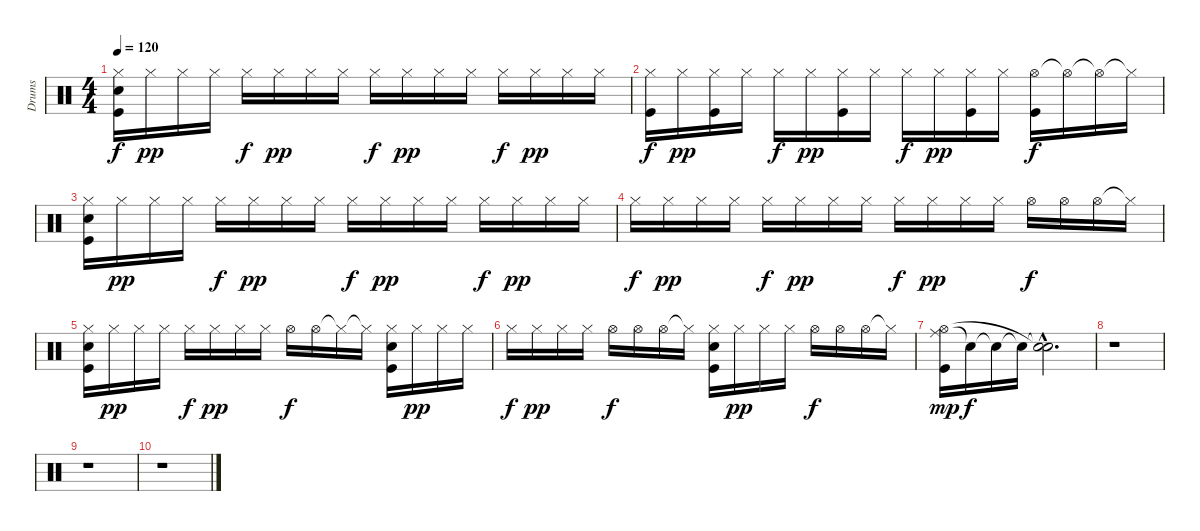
\track ("Drums" "Drums") {instrument percussion}
\staff {score}
\articulation defaults
\ts (4 4)
\tempo 120
\clef neutral
\ks c
("Hi-Hat (closed)" "Electric Snare (hit)" "Kick (hit)").16{dy f} "Hi-Hat (closed)".16{dy pp} "Hi-Hat (closed)".16 "Hi-Hat (closed)".16 "Hi-Hat (closed)".16{dy f} "Hi-Hat (closed)".16{dy pp} "Hi-Hat (closed)".16 "Hi-Hat (closed)".16 "Hi-Hat (closed)".16{dy f} "Hi-Hat (closed)".16{dy pp} "Hi-Hat (closed)".16 "Hi-Hat (closed)".16 "Hi-Hat (closed)".16{dy f} "Hi-Hat (closed)".16{dy pp} "Hi-Hat (closed)".16 "Hi-Hat (closed)".16 |
("Hi-Hat (closed)" "Kick (hit)").16{dy f} "Hi-Hat (closed)".16{dy pp} ("Hi-Hat (closed)" "Kick (hit)").16 "Hi-Hat (closed)".16 "Hi-Hat (closed)".16{dy f} "Hi-Hat (closed)".16{dy pp} ("Hi-Hat (closed)" "Kick (hit)").16 "Hi-Hat (closed)".16 "Hi-Hat (closed)".16{dy f} "Hi-Hat (closed)".16{dy pp} ("Hi-Hat (closed)" "Kick (hit)").16 "Hi-Hat (closed)".16 ("Hi-Hat (open)" "Kick (hit)").16{dy f} "Hi-Hat (open)"{t}.16 "Hi-Hat (open)"{t}.16 "Hi-Hat (closed)"{t}.16 |
("Hi-Hat (closed)" "Electric Snare (hit)" "Kick (hit)").16 "Hi-Hat (closed)".16{dy pp} "Hi-Hat (closed)".16 "Hi-Hat (closed)".16 "Hi-Hat (closed)".16{dy f} "Hi-Hat (closed)".16{dy pp} "Hi-Hat (closed)".16 "Hi-Hat (closed)".16 "Hi-Hat (closed)".16{dy f} "Hi-Hat (closed)".16{dy pp} "Hi-Hat (closed)".16 "Hi-Hat (closed)".16 "Hi-Hat (closed)".16{dy f} "Hi-Hat (closed)".16{dy pp} "Hi-Hat (closed)".16 "Hi-Hat (closed)".16 |
"Hi-Hat (closed)".16{dy f} "Hi-Hat (closed)".16{dy pp} "Hi-Hat (closed)".16 "Hi-Hat (closed)".16 "Hi-Hat (closed)".16{dy f} "Hi-Hat (closed)".16{dy pp} "Hi-Hat (closed)".16 "Hi-Hat (closed)".16 "Hi-Hat (closed)".16{dy f} "Hi-Hat (closed)".16{dy pp} "Hi-Hat (closed)".16 "Hi-Hat (closed)".16 "Hi-Hat (open)".16{dy f} "Hi-Hat (open)".16 "Hi-Hat (open)".16 "Hi-Hat (closed)"{t}.16 |
("Hi-Hat (closed)" "Electric Snare (hit)" "Kick (hit)").16 "Hi-Hat (closed)".16{dy pp} "Hi-Hat (closed)".16 "Hi-Hat (closed)".16 "Hi-Hat (closed)".16{dy f} "Hi-Hat (closed)".16{dy pp} "Hi-Hat (closed)".16 "Hi-Hat (closed)".16 "Hi-Hat (open)".16{dy f} "Hi-Hat (open)".16 "Hi-Hat (closed)"{t}.16 "Hi-Hat (closed)"{t}.16 ("Hi-Hat (closed)" "Electric Snare (hit)" "Kick (hit)").16 "Hi-Hat (closed)".16{dy pp} "Hi-Hat (closed)".16 "Hi-Hat (closed)".16 |
"Hi-Hat (closed)".16{dy f} "Hi-Hat (closed)".16{dy pp} "Hi-Hat (closed)".16 "Hi-Hat (closed)".16 "Hi-Hat (open)".16{dy f} "Hi-Hat (open)".16 "Hi-Hat (open)".16 "Hi-Hat (closed)"{t}.16 ("Hi-Hat (closed)" "Electric Snare (hit)" "Kick (hit)").16 "Hi-Hat (closed)".16{dy pp} "Hi-Hat (closed)".16 "Hi-Hat (closed)".16 "Hi-Hat (open)".16{dy f} "Hi-Hat (open)".16 "Hi-Hat (open)".16 "Hi-Hat (closed)"{t}.16 |
("Ride (middle)" "Hi-Hat (open)"{tr (46 32)} "Kick (hit)").16{dy mp} "Snare (hit)"{t}.16{dy f} "Snare (hit)"{t}.16 "Snare (hit)"{t}.16 ("Snare (hit)"{hac t} "Snare (hit)"{hac t}).2{d} |
r.1 |
r.1 |
r.1
